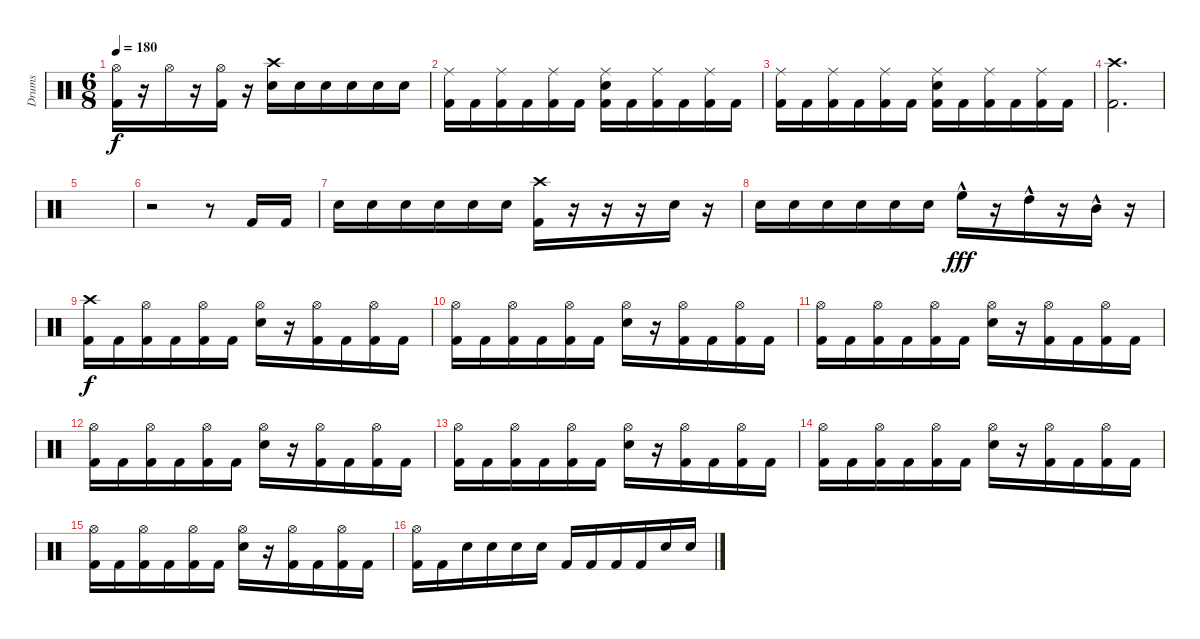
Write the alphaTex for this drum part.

\track ("Drums" "Drums") {instrument percussion}
\staff {score}
\articulation defaults
\ts (6 8)
\tempo 180
\clef neutral
\ks c
("Kick (hit) 2" "Hi-Hat (open)").16{dy f} r.16 "Hi-Hat (open)".16 r.16 ("Kick (hit) 2" "Hi-Hat (open)").16 r.16 ("Electric Snare (hit)" "Crash high (hit)").16 "Electric Snare (hit)".16 "Electric Snare (hit)".16 "Electric Snare (hit)".16 "Electric Snare (hit)".16 "Electric Snare (hit)".16 |
("Kick (hit) 2" "Ride (middle)").16 "Kick (hit) 2".16 ("Kick (hit) 2" "Ride (middle)").16 "Kick (hit) 2".16 ("Kick (hit) 2" "Ride (middle)").16 "Kick (hit) 2".16 ("Kick (hit) 2" "Electric Snare (hit)" "Ride (middle)").16 "Kick (hit) 2".16 ("Kick (hit) 2" "Ride (middle)").16 "Kick (hit) 2".16 ("Kick (hit) 2" "Ride (middle)").16 "Kick (hit) 2".16 |
("Kick (hit) 2" "Ride (middle)").16 "Kick (hit) 2".16 ("Kick (hit) 2" "Ride (middle)").16 "Kick (hit) 2".16 ("Kick (hit) 2" "Ride (middle)").16 "Kick (hit) 2".16 ("Kick (hit) 2" "Electric Snare (hit)" "Ride (middle)").16 "Kick (hit) 2".16 ("Kick (hit) 2" "Ride (middle)").16 "Kick (hit) 2".16 ("Kick (hit) 2" "Ride (middle)").16 "Kick (hit) 2".16 |
("Kick (hit) 2" "Crash high (hit)").2{d} |
|
r.2 r.8 "Kick (hit) 2".16 "Kick (hit) 2".16 |
"Electric Snare (hit)".16 "Electric Snare (hit)".16 "Electric Snare (hit)".16 "Electric Snare (hit)".16 "Electric Snare (hit)".16 "Electric Snare (hit)".16 ("Kick (hit) 2" "Crash high (hit)").16 r.16 r.16 r.16 "Electric Snare (hit)".16 r.16 |
"Electric Snare (hit)".16 "Electric Snare (hit)".16 "Electric Snare (hit)".16 "Electric Snare (hit)".16 "Electric Snare (hit)".16 "Electric Snare (hit)".16 "High Floor Tom (hit)"{hac}.16{dy fff} r.16 "High Tom (hit)"{hac}.16 r.16 "Mid Tom (hit)"{hac}.16 r.16 |
("Kick (hit) 2" "Crash high (hit)").16{dy f} "Kick (hit) 2".16 ("Kick (hit) 2" "Hi-Hat (open)").16 "Kick (hit) 2".16 ("Kick (hit) 2" "Hi-Hat (open)").16 "Kick (hit) 2".16 ("Electric Snare (hit)" "Hi-Hat (open)").16 r.16 ("Kick (hit) 2" "Hi-Hat (open)").16 "Kick (hit) 2".16 ("Kick (hit) 2" "Hi-Hat (open)").16 "Kick (hit) 2".16 |
("Kick (hit) 2" "Hi-Hat (open)").16 "Kick (hit) 2".16 ("Kick (hit) 2" "Hi-Hat (open)").16 "Kick (hit) 2".16 ("Kick (hit) 2" "Hi-Hat (open)").16 "Kick (hit) 2".16 ("Electric Snare (hit)" "Hi-Hat (open)").16 r.16 ("Kick (hit) 2" "Hi-Hat (open)").16 "Kick (hit) 2".16 ("Kick (hit) 2" "Hi-Hat (open)").16 "Kick (hit) 2".16 |
("Kick (hit) 2" "Hi-Hat (open)").16 "Kick (hit) 2".16 ("Kick (hit) 2" "Hi-Hat (open)").16 "Kick (hit) 2".16 ("Kick (hit) 2" "Hi-Hat (open)").16 "Kick (hit) 2".16 ("Electric Snare (hit)" "Hi-Hat (open)").16 r.16 ("Kick (hit) 2" "Hi-Hat (open)").16 "Kick (hit) 2".16 ("Kick (hit) 2" "Hi-Hat (open)").16 "Kick (hit) 2".16 |
("Kick (hit) 2" "Hi-Hat (open)").16 "Kick (hit) 2".16 ("Kick (hit) 2" "Hi-Hat (open)").16 "Kick (hit) 2".16 ("Kick (hit) 2" "Hi-Hat (open)").16 "Kick (hit) 2".16 ("Electric Snare (hit)" "Hi-Hat (open)").16 r.16 ("Kick (hit) 2" "Hi-Hat (open)").16 "Kick (hit) 2".16 ("Kick (hit) 2" "Hi-Hat (open)").16 "Kick (hit) 2".16 |
("Kick (hit) 2" "Hi-Hat (open)").16 "Kick (hit) 2".16 ("Kick (hit) 2" "Hi-Hat (open)").16 "Kick (hit) 2".16 ("Kick (hit) 2" "Hi-Hat (open)").16 "Kick (hit) 2".16 ("Electric Snare (hit)" "Hi-Hat (open)").16 r.16 ("Kick (hit) 2" "Hi-Hat (open)").16 "Kick (hit) 2".16 ("Kick (hit) 2" "Hi-Hat (open)").16 "Kick (hit) 2".16 |
("Kick (hit) 2" "Hi-Hat (open)").16 "Kick (hit) 2".16 ("Kick (hit) 2" "Hi-Hat (open)").16 "Kick (hit) 2".16 ("Kick (hit) 2" "Hi-Hat (open)").16 "Kick (hit) 2".16 ("Electric Snare (hit)" "Hi-Hat (open)").16 r.16 ("Kick (hit) 2" "Hi-Hat (open)").16 "Kick (hit) 2".16 ("Kick (hit) 2" "Hi-Hat (open)").16 "Kick (hit) 2".16 |
("Kick (hit) 2" "Hi-Hat (open)").16 "Kick (hit) 2".16 ("Kick (hit) 2" "Hi-Hat (open)").16 "Kick (hit) 2".16 ("Kick (hit) 2" "Hi-Hat (open)").16 "Kick (hit) 2".16 ("Electric Snare (hit)" "Hi-Hat (open)").16 r.16 ("Kick (hit) 2" "Hi-Hat (open)").16 "Kick (hit) 2".16 ("Kick (hit) 2" "Hi-Hat (open)").16 "Kick (hit) 2".16 |
("Kick (hit) 2" "Hi-Hat (open)").16 "Kick (hit) 2".16 "Electric Snare (hit)".16 "Electric Snare (hit)".16 "Electric Snare (hit)".16 "Electric Snare (hit)".16 "Kick (hit) 2".16 "Kick (hit) 2".16 "Kick (hit) 2".16 "Kick (hit) 2".16 "Electric Snare (hit)".16 "Electric Snare (hit)".16
